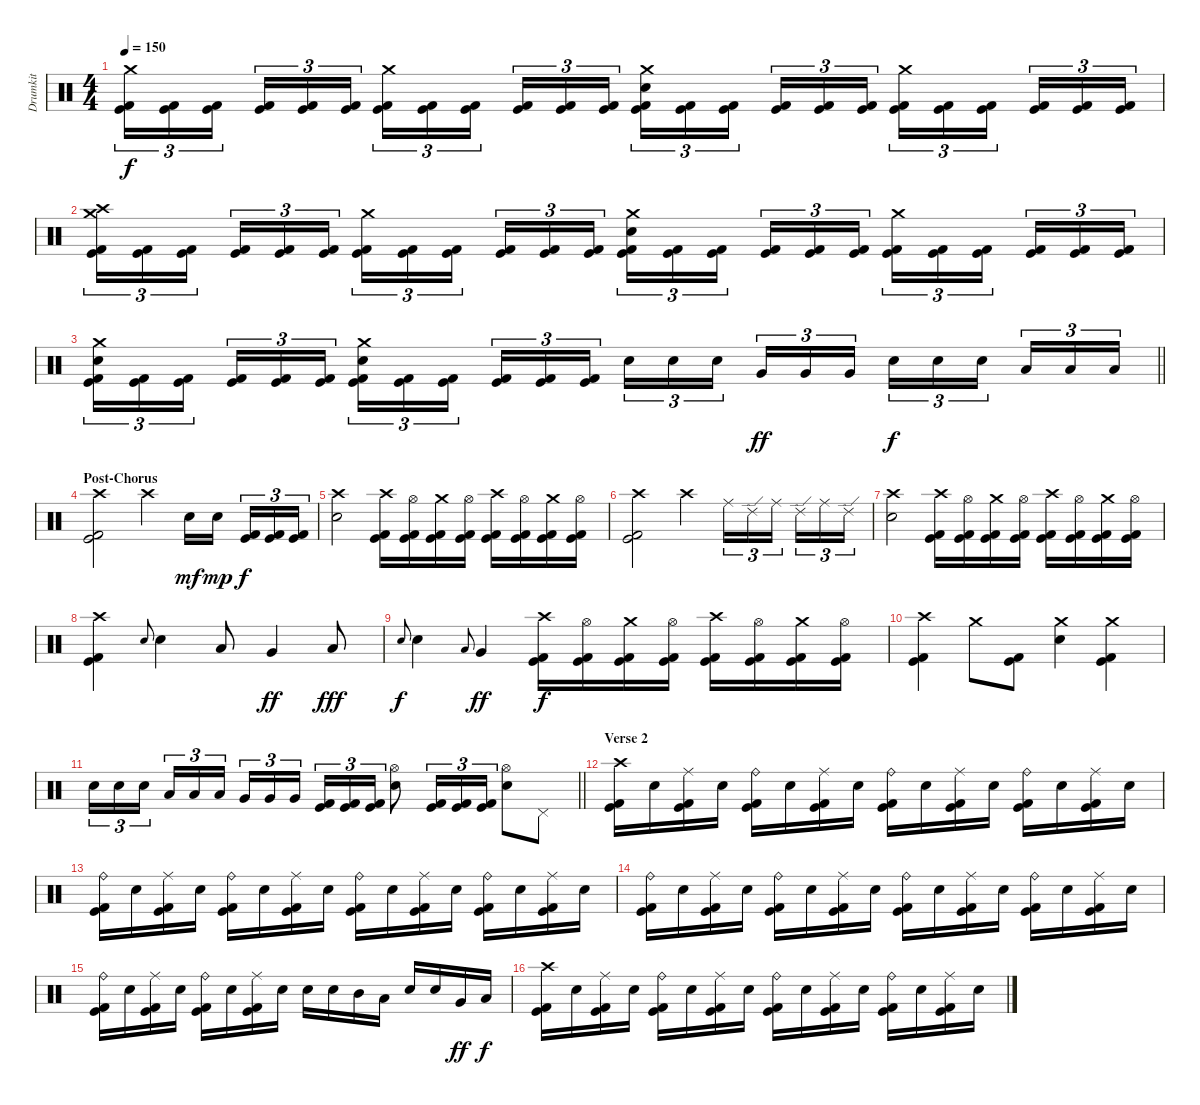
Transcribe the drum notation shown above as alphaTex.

\track ("Drumkit" "Drumkit") {instrument percussion}
\staff {score}
\articulation defaults
\ts (4 4)
\tempo 150
\clef neutral
\ks c
("Crash medium (hit)" "Kick (hit)" "Kick (hit) 2").16{tu (3 2) dy f} ("Kick (hit)" "Kick (hit) 2").16{tu (3 2)} ("Kick (hit)" "Kick (hit) 2").16{tu (3 2) beam splitsecondary} ("Kick (hit)" "Kick (hit) 2").16{tu (3 2)} ("Kick (hit)" "Kick (hit) 2").16{tu (3 2)} ("Kick (hit)" "Kick (hit) 2").16{tu (3 2)} ("Crash medium (hit)" "Kick (hit)" "Kick (hit) 2").16{tu (3 2)} ("Kick (hit)" "Kick (hit) 2").16{tu (3 2)} ("Kick (hit)" "Kick (hit) 2").16{tu (3 2) beam splitsecondary} ("Kick (hit)" "Kick (hit) 2").16{tu (3 2)} ("Kick (hit)" "Kick (hit) 2").16{tu (3 2)} ("Kick (hit)" "Kick (hit) 2").16{tu (3 2)} ("Crash medium (hit)" "Electric Snare (hit)" "Kick (hit)" "Kick (hit) 2").16{tu (3 2)} ("Kick (hit)" "Kick (hit) 2").16{tu (3 2)} ("Kick (hit)" "Kick (hit) 2").16{tu (3 2) beam splitsecondary} ("Kick (hit)" "Kick (hit) 2").16{tu (3 2)} ("Kick (hit)" "Kick (hit) 2").16{tu (3 2)} ("Kick (hit)" "Kick (hit) 2").16{tu (3 2)} ("Crash medium (hit)" "Kick (hit)" "Kick (hit) 2").16{tu (3 2)} ("Kick (hit)" "Kick (hit) 2").16{tu (3 2)} ("Kick (hit)" "Kick (hit) 2").16{tu (3 2) beam splitsecondary} ("Kick (hit)" "Kick (hit) 2").16{tu (3 2)} ("Kick (hit)" "Kick (hit) 2").16{tu (3 2)} ("Kick (hit)" "Kick (hit) 2").16{tu (3 2)} |
("Crash high (hit)" "Crash medium (hit)" "Kick (hit)" "Kick (hit) 2").16{tu (3 2)} ("Kick (hit)" "Kick (hit) 2").16{tu (3 2)} ("Kick (hit)" "Kick (hit) 2").16{tu (3 2) beam splitsecondary} ("Kick (hit)" "Kick (hit) 2").16{tu (3 2)} ("Kick (hit)" "Kick (hit) 2").16{tu (3 2)} ("Kick (hit)" "Kick (hit) 2").16{tu (3 2)} ("Crash medium (hit)" "Kick (hit)" "Kick (hit) 2").16{tu (3 2)} ("Kick (hit)" "Kick (hit) 2").16{tu (3 2)} ("Kick (hit)" "Kick (hit) 2").16{tu (3 2) beam splitsecondary} ("Kick (hit)" "Kick (hit) 2").16{tu (3 2)} ("Kick (hit)" "Kick (hit) 2").16{tu (3 2)} ("Kick (hit)" "Kick (hit) 2").16{tu (3 2)} ("Crash medium (hit)" "Electric Snare (hit)" "Kick (hit)" "Kick (hit) 2").16{tu (3 2)} ("Kick (hit)" "Kick (hit) 2").16{tu (3 2)} ("Kick (hit)" "Kick (hit) 2").16{tu (3 2) beam splitsecondary} ("Kick (hit)" "Kick (hit) 2").16{tu (3 2)} ("Kick (hit)" "Kick (hit) 2").16{tu (3 2)} ("Kick (hit)" "Kick (hit) 2").16{tu (3 2)} ("Crash medium (hit)" "Kick (hit)" "Kick (hit) 2").16{tu (3 2)} ("Kick (hit)" "Kick (hit) 2").16{tu (3 2)} ("Kick (hit)" "Kick (hit) 2").16{tu (3 2) beam splitsecondary} ("Kick (hit)" "Kick (hit) 2").16{tu (3 2)} ("Kick (hit)" "Kick (hit) 2").16{tu (3 2)} ("Kick (hit)" "Kick (hit) 2").16{tu (3 2)} |
\barLineRight lightlight
("Crash medium (hit)" "Electric Snare (hit)" "Kick (hit)" "Kick (hit) 2").16{tu (3 2)} ("Kick (hit)" "Kick (hit) 2").16{tu (3 2)} ("Kick (hit)" "Kick (hit) 2").16{tu (3 2) beam splitsecondary} ("Kick (hit)" "Kick (hit) 2").16{tu (3 2)} ("Kick (hit)" "Kick (hit) 2").16{tu (3 2)} ("Kick (hit)" "Kick (hit) 2").16{tu (3 2)} ("Crash medium (hit)" "Electric Snare (hit)" "Kick (hit)" "Kick (hit) 2").16{tu (3 2)} ("Kick (hit)" "Kick (hit) 2").16{tu (3 2)} ("Kick (hit)" "Kick (hit) 2").16{tu (3 2) beam splitsecondary} ("Kick (hit)" "Kick (hit) 2").16{tu (3 2)} ("Kick (hit)" "Kick (hit) 2").16{tu (3 2)} ("Kick (hit)" "Kick (hit) 2").16{tu (3 2)} "Electric Snare (hit)".16{tu (3 2)} "Electric Snare (hit)".16{tu (3 2)} "Electric Snare (hit)".16{tu (3 2) beam splitsecondary} "Very Low Tom (hit)".16{tu (3 2) dy ff} "Very Low Tom (hit)".16{tu (3 2)} "Very Low Tom (hit)".16{tu (3 2)} "Electric Snare (hit)".16{tu (3 2) dy f} "Electric Snare (hit)".16{tu (3 2)} "Electric Snare (hit)".16{tu (3 2) beam splitsecondary} "Low Tom (hit)".16{tu (3 2)} "Low Tom (hit)".16{tu (3 2)} "Low Tom (hit)".16{tu (3 2)} |
\section ("" "Post-Chorus")
("Crash high (hit)" "Kick (hit)" "Kick (hit) 2").2 "Crash high (hit)".4 "Electric Snare (hit)".16{dy mf} "Electric Snare (hit)".16{dy mp beam splitsecondary} ("Kick (hit)" "Kick (hit) 2").16{tu (3 2) dy f} ("Kick (hit)" "Kick (hit) 2").16{tu (3 2)} ("Kick (hit)" "Kick (hit) 2").16{tu (3 2)} |
("Crash high (hit)" "Electric Snare (hit)").2 ("Crash high (hit)" "Kick (hit)" "Kick (hit) 2").16 ("Hi-Hat (open)" "Kick (hit)" "Kick (hit) 2").16 ("Crash medium (hit)" "Kick (hit)" "Kick (hit) 2").16 ("Hi-Hat (open)" "Kick (hit)" "Kick (hit) 2").16 ("Crash high (hit)" "Kick (hit)" "Kick (hit) 2").16 ("Hi-Hat (open)" "Kick (hit)" "Kick (hit) 2").16 ("Crash medium (hit)" "Kick (hit)" "Kick (hit) 2").16 ("Hi-Hat (open)" "Kick (hit)" "Kick (hit) 2").16 |
("Crash high (hit)" "Kick (hit)" "Kick (hit) 2").2 "Crash high (hit)".4 "Ride (middle)".16{tu (3 2)} "Ride (edge) 2".16{tu (3 2)} "Ride (middle)".16{tu (3 2) beam splitsecondary} "Ride (edge) 2".16{tu (3 2)} "Ride (middle)".16{tu (3 2)} "Ride (edge) 2".16{tu (3 2)} |
("Crash high (hit)" "Electric Snare (hit)").2 ("Crash high (hit)" "Kick (hit)" "Kick (hit) 2").16 ("Hi-Hat (open)" "Kick (hit)" "Kick (hit) 2").16 ("Crash medium (hit)" "Kick (hit)" "Kick (hit) 2").16 ("Hi-Hat (open)" "Kick (hit)" "Kick (hit) 2").16 ("Crash high (hit)" "Kick (hit)" "Kick (hit) 2").16 ("Hi-Hat (open)" "Kick (hit)" "Kick (hit) 2").16 ("Crash medium (hit)" "Kick (hit)" "Kick (hit) 2").16 ("Hi-Hat (open)" "Kick (hit)" "Kick (hit) 2").16 |
("Crash high (hit)" "Kick (hit)" "Kick (hit) 2").4 "Electric Snare (hit)".8{gr onbeat} "Electric Snare (hit)".4 "Low Tom (hit)".8 "Very Low Tom (hit)".4{dy ff} "Low Floor Tom (hit)".8{dy fff} |
"Electric Snare (hit)".8{gr onbeat dy f} "Electric Snare (hit)".4 "Low Tom (hit)".8{gr onbeat} "Very Low Tom (hit)".4{dy ff} ("Crash high (hit)" "Kick (hit)" "Kick (hit) 2").16{dy f} ("Hi-Hat (open)" "Kick (hit)" "Kick (hit) 2").16 ("Crash medium (hit)" "Kick (hit)" "Kick (hit) 2").16 ("Hi-Hat (open)" "Kick (hit)" "Kick (hit) 2").16 ("Crash high (hit)" "Kick (hit)" "Kick (hit) 2").16 ("Hi-Hat (open)" "Kick (hit)" "Kick (hit) 2").16 ("Crash medium (hit)" "Kick (hit)" "Kick (hit) 2").16 ("Hi-Hat (open)" "Kick (hit)" "Kick (hit) 2").16 |
("Crash high (hit)" "Kick (hit)" "Kick (hit) 2").4 "Crash medium (hit)".8 ("Kick (hit)" "Kick (hit) 2").8 ("Crash medium (hit)" "Electric Snare (hit)").4 ("Crash medium (hit)" "Kick (hit)" "Kick (hit) 2").4 |
\barLineRight lightlight "Electric Snare (hit)".16{tu (3 2)} "Electric Snare (hit)".16{tu (3 2)} "Electric Snare (hit)".16{tu (3 2) beam splitsecondary} "Low Tom (hit)".16{tu (3 2)} "Low Tom (hit)".16{tu (3 2)} "Low Tom (hit)".16{tu (3 2)} "Very Low Tom (hit)".16{tu (3 2)} "Very Low Tom (hit)".16{tu (3 2)} "Very Low Tom (hit)".16{tu (3 2) beam splitsecondary}
("Kick (hit)" "Kick (hit) 2").16{tu (3 2)} ("Kick (hit)" "Kick (hit) 2").16{tu (3 2)} ("Kick (hit)" "Kick (hit) 2").16{tu (3 2)} ("Hi-Hat (open)" "Electric Snare (hit)").8 ("Kick (hit)" "Kick (hit) 2").16{tu (3 2)} ("Kick (hit)" "Kick (hit) 2").16{tu (3 2)} ("Kick (hit)" "Kick (hit) 2").16{tu (3 2)} ("Hi-Hat (open)" "Electric Snare (hit)").8 "Pedal Hi-Hat (hit)".8 |
\section ("" "Verse 2")
("Crash high (hit)" "Kick (hit)" "Kick (hit) 2").16 "Electric Snare (hit)".16 ("Ride (middle)" "Kick (hit)" "Kick (hit) 2").16 "Electric Snare (hit)".16 ("Ride (bell)" "Kick (hit)" "Kick (hit) 2").16 "Electric Snare (hit)".16 ("Ride (middle)" "Kick (hit)" "Kick (hit) 2").16 "Electric Snare (hit)".16 ("Ride (bell)" "Kick (hit)" "Kick (hit) 2").16 "Electric Snare (hit)".16 ("Ride (middle)" "Kick (hit)" "Kick (hit) 2").16 "Electric Snare (hit)".16 ("Ride (bell)" "Kick (hit)" "Kick (hit) 2").16 "Electric Snare (hit)".16 ("Ride (middle)" "Kick (hit)" "Kick (hit) 2").16 "Electric Snare (hit)".16 |
("Ride (bell)" "Kick (hit)" "Kick (hit) 2").16 "Electric Snare (hit)".16 ("Ride (middle)" "Kick (hit)" "Kick (hit) 2").16 "Electric Snare (hit)".16 ("Ride (bell)" "Kick (hit)" "Kick (hit) 2").16 "Electric Snare (hit)".16 ("Ride (middle)" "Kick (hit)" "Kick (hit) 2").16 "Electric Snare (hit)".16 ("Ride (bell)" "Kick (hit)" "Kick (hit) 2").16 "Electric Snare (hit)".16 ("Ride (middle)" "Kick (hit)" "Kick (hit) 2").16 "Electric Snare (hit)".16 ("Ride (bell)" "Kick (hit)" "Kick (hit) 2").16 "Electric Snare (hit)".16 ("Ride (middle)" "Kick (hit)" "Kick (hit) 2").16 "Electric Snare (hit)".16 |
("Ride (bell)" "Kick (hit)" "Kick (hit) 2").16 "Electric Snare (hit)".16 ("Ride (middle)" "Kick (hit)" "Kick (hit) 2").16 "Electric Snare (hit)".16 ("Ride (bell)" "Kick (hit)" "Kick (hit) 2").16 "Electric Snare (hit)".16 ("Ride (middle)" "Kick (hit)" "Kick (hit) 2").16 "Electric Snare (hit)".16 ("Ride (bell)" "Kick (hit)" "Kick (hit) 2").16 "Electric Snare (hit)".16 ("Ride (middle)" "Kick (hit)" "Kick (hit) 2").16 "Electric Snare (hit)".16 ("Ride (bell)" "Kick (hit)" "Kick (hit) 2").16 "Electric Snare (hit)".16 ("Ride (middle)" "Kick (hit)" "Kick (hit) 2").16 "Electric Snare (hit)".16 |
("Ride (bell)" "Kick (hit)" "Kick (hit) 2").16 "Electric Snare (hit)".16 ("Ride (middle)" "Kick (hit)" "Kick (hit) 2").16 "Electric Snare (hit)".16 ("Ride (bell)" "Kick (hit)" "Kick (hit) 2").16 "Electric Snare (hit)".16 ("Ride (middle)" "Kick (hit)" "Kick (hit) 2").16 "Electric Snare (hit)".16 "Electric Snare (hit)".16 "Electric Snare (hit)".16 "Mid Tom (hit)".16 "Low Tom (hit)".16 "Electric Snare (hit)".16 "Electric Snare (hit)".16 "Very Low Tom (hit)".16{dy ff} "Low Floor Tom (hit)".16{dy f} |
("Crash high (hit)" "Kick (hit)" "Kick (hit) 2").16 "Electric Snare (hit)".16 ("Ride (middle)" "Kick (hit)" "Kick (hit) 2").16 "Electric Snare (hit)".16 ("Ride (bell)" "Kick (hit)" "Kick (hit) 2").16 "Electric Snare (hit)".16 ("Ride (middle)" "Kick (hit)" "Kick (hit) 2").16 "Electric Snare (hit)".16 ("Ride (bell)" "Kick (hit)" "Kick (hit) 2").16 "Electric Snare (hit)".16 ("Ride (middle)" "Kick (hit)" "Kick (hit) 2").16 "Electric Snare (hit)".16 ("Ride (bell)" "Kick (hit)" "Kick (hit) 2").16 "Electric Snare (hit)".16 ("Ride (middle)" "Kick (hit)" "Kick (hit) 2").16 "Electric Snare (hit)".16
